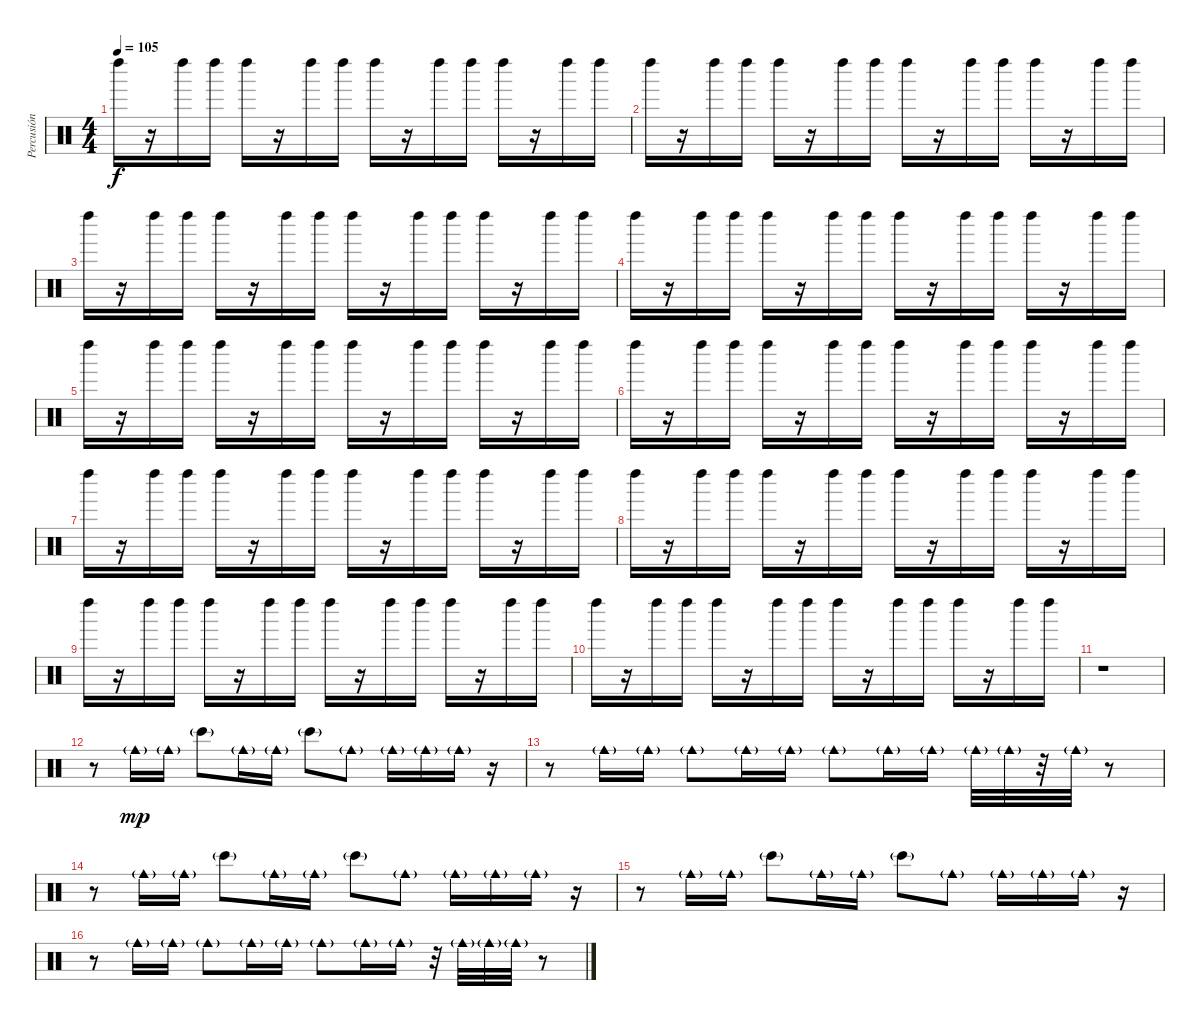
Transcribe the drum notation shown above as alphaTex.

\track ("Percusión" "Percusión") {instrument percussion}
\staff {score}
\articulation defaults
\ts (4 4)
\tempo 105
\clef neutral
\ks c "Left Maraca (hit)".16{dy f}
r.16 "Left Maraca (hit)".16 "Left Maraca (hit)".16 "Left Maraca (hit)".16 r.16 "Left Maraca (hit)".16 "Left Maraca (hit)".16 "Left Maraca (hit)".16 r.16 "Left Maraca (hit)".16 "Left Maraca (hit)".16 "Left Maraca (hit)".16 r.16 "Left Maraca (hit)".16 "Left Maraca (hit)".16 |
"Left Maraca (hit)".16 r.16 "Left Maraca (hit)".16 "Left Maraca (hit)".16 "Left Maraca (hit)".16 r.16 "Left Maraca (hit)".16 "Left Maraca (hit)".16 "Left Maraca (hit)".16 r.16 "Left Maraca (hit)".16 "Left Maraca (hit)".16 "Left Maraca (hit)".16 r.16 "Left Maraca (hit)".16 "Left Maraca (hit)".16 |
"Left Maraca (hit)".16 r.16 "Left Maraca (hit)".16 "Left Maraca (hit)".16 "Left Maraca (hit)".16 r.16 "Left Maraca (hit)".16 "Left Maraca (hit)".16 "Left Maraca (hit)".16 r.16 "Left Maraca (hit)".16 "Left Maraca (hit)".16 "Left Maraca (hit)".16 r.16 "Left Maraca (hit)".16 "Left Maraca (hit)".16 |
"Left Maraca (hit)".16 r.16 "Left Maraca (hit)".16 "Left Maraca (hit)".16 "Left Maraca (hit)".16 r.16 "Left Maraca (hit)".16 "Left Maraca (hit)".16 "Left Maraca (hit)".16 r.16 "Left Maraca (hit)".16 "Left Maraca (hit)".16 "Left Maraca (hit)".16 r.16 "Left Maraca (hit)".16 "Left Maraca (hit)".16 |
"Left Maraca (hit)".16 r.16 "Left Maraca (hit)".16 "Left Maraca (hit)".16 "Left Maraca (hit)".16 r.16 "Left Maraca (hit)".16 "Left Maraca (hit)".16 "Left Maraca (hit)".16 r.16 "Left Maraca (hit)".16 "Left Maraca (hit)".16 "Left Maraca (hit)".16 r.16 "Left Maraca (hit)".16 "Left Maraca (hit)".16 |
"Left Maraca (hit)".16 r.16 "Left Maraca (hit)".16 "Left Maraca (hit)".16 "Left Maraca (hit)".16 r.16 "Left Maraca (hit)".16 "Left Maraca (hit)".16 "Left Maraca (hit)".16 r.16 "Left Maraca (hit)".16 "Left Maraca (hit)".16 "Left Maraca (hit)".16 r.16 "Left Maraca (hit)".16 "Left Maraca (hit)".16 |
"Left Maraca (hit)".16 r.16 "Left Maraca (hit)".16 "Left Maraca (hit)".16 "Left Maraca (hit)".16 r.16 "Left Maraca (hit)".16 "Left Maraca (hit)".16 "Left Maraca (hit)".16 r.16 "Left Maraca (hit)".16 "Left Maraca (hit)".16 "Left Maraca (hit)".16 r.16 "Left Maraca (hit)".16 "Left Maraca (hit)".16 |
"Left Maraca (hit)".16 r.16 "Left Maraca (hit)".16 "Left Maraca (hit)".16 "Left Maraca (hit)".16 r.16 "Left Maraca (hit)".16 "Left Maraca (hit)".16 "Left Maraca (hit)".16 r.16 "Left Maraca (hit)".16 "Left Maraca (hit)".16 "Left Maraca (hit)".16 r.16 "Left Maraca (hit)".16 "Left Maraca (hit)".16 |
"Left Maraca (hit)".16 r.16 "Left Maraca (hit)".16 "Left Maraca (hit)".16 "Left Maraca (hit)".16 r.16 "Left Maraca (hit)".16 "Left Maraca (hit)".16 "Left Maraca (hit)".16 r.16 "Left Maraca (hit)".16 "Left Maraca (hit)".16 "Left Maraca (hit)".16 r.16 "Left Maraca (hit)".16 "Left Maraca (hit)".16 |
"Left Maraca (hit)".16 r.16 "Left Maraca (hit)".16 "Left Maraca (hit)".16 "Left Maraca (hit)".16 r.16 "Left Maraca (hit)".16 "Left Maraca (hit)".16 "Left Maraca (hit)".16 r.16 "Left Maraca (hit)".16 "Left Maraca (hit)".16 "Left Maraca (hit)".16 r.16 "Left Maraca (hit)".16 "Left Maraca (hit)".16 |
r.1 |
r.8 "Cowbell medium (hit)"{g}.16{dy mp} "Cowbell medium (hit)"{g}.16 "Bongo High (hit)"{g}.8 "Cowbell medium (hit)"{g}.16 "Cowbell medium (hit)"{g}.16 "Bongo High (hit)"{g}.8 "Cowbell medium (hit)"{g}.8 "Cowbell medium (hit)"{g}.16 "Cowbell medium (hit)"{g}.16 "Cowbell medium (hit)"{g}.16 r.16 |
r.8 "Cowbell medium (hit)"{g}.16 "Cowbell medium (hit)"{g}.16 "Cowbell medium (hit)"{g}.8 "Cowbell medium (hit)"{g}.16 "Cowbell medium (hit)"{g}.16 "Cowbell medium (hit)"{g}.8 "Cowbell medium (hit)"{g}.16 "Cowbell medium (hit)"{g}.16 "Cowbell medium (hit)"{g}.32 "Cowbell medium (hit)"{g}.32 r.32 "Cowbell medium (hit)"{g}.32 r.8 |
r.8 "Cowbell medium (hit)"{g}.16 "Cowbell medium (hit)"{g}.16 "Bongo High (hit)"{g}.8 "Cowbell medium (hit)"{g}.16 "Cowbell medium (hit)"{g}.16 "Bongo High (hit)"{g}.8 "Cowbell medium (hit)"{g}.8 "Cowbell medium (hit)"{g}.16 "Cowbell medium (hit)"{g}.16 "Cowbell medium (hit)"{g}.16 r.16 |
r.8 "Cowbell medium (hit)"{g}.16 "Cowbell medium (hit)"{g}.16 "Bongo High (hit)"{g}.8 "Cowbell medium (hit)"{g}.16 "Cowbell medium (hit)"{g}.16 "Bongo High (hit)"{g}.8 "Cowbell medium (hit)"{g}.8 "Cowbell medium (hit)"{g}.16 "Cowbell medium (hit)"{g}.16 "Cowbell medium (hit)"{g}.16 r.16 |
r.8 "Cowbell medium (hit)"{g}.16 "Cowbell medium (hit)"{g}.16 "Cowbell medium (hit)"{g}.8 "Cowbell medium (hit)"{g}.16 "Cowbell medium (hit)"{g}.16 "Cowbell medium (hit)"{g}.8 "Cowbell medium (hit)"{g}.16 "Cowbell medium (hit)"{g}.16 r.32 "Cowbell medium (hit)"{g}.32 "Cowbell medium (hit)"{g}.32 "Cowbell medium (hit)"{g}.32 r.8
